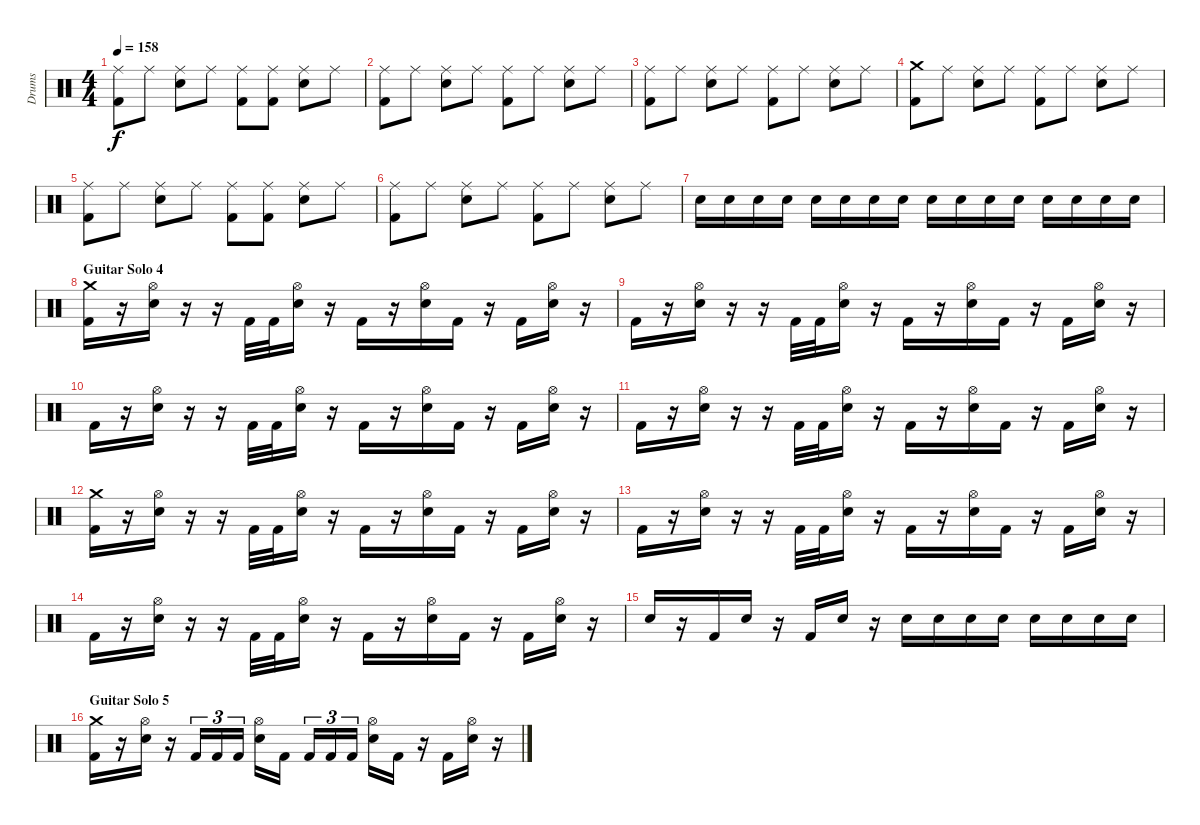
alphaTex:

\track ("Drums" "Drums") {instrument percussion}
\staff {score}
\articulation defaults
\ts (4 4)
\tempo 158
\clef neutral
\ks c
("Ride (middle)" "Kick (hit) 2").8{dy f} "Ride (middle)".8 ("Ride (middle)" "Electric Snare (hit)").8 "Ride (middle)".8 ("Ride (middle)" "Kick (hit) 2").8 ("Ride (middle)" "Kick (hit) 2").8 ("Ride (middle)" "Electric Snare (hit)").8 "Ride (middle)".8 |
("Ride (middle)" "Kick (hit) 2").8 "Ride (middle)".8 ("Ride (middle)" "Electric Snare (hit)").8 "Ride (middle)".8 ("Ride (middle)" "Kick (hit) 2").8 "Ride (middle)".8 ("Ride (middle)" "Electric Snare (hit)").8 "Ride (middle)".8 |
("Ride (middle)" "Kick (hit) 2").8 "Ride (middle)".8 ("Ride (middle)" "Electric Snare (hit)").8 "Ride (middle)".8 ("Ride (middle)" "Kick (hit) 2").8 "Ride (middle)".8 ("Ride (middle)" "Electric Snare (hit)").8 "Ride (middle)".8 |
("Crash medium (hit)" "Kick (hit) 2").8 "Ride (middle)".8 ("Ride (middle)" "Electric Snare (hit)").8 "Ride (middle)".8 ("Ride (middle)" "Kick (hit) 2").8 "Ride (middle)".8 ("Ride (middle)" "Electric Snare (hit)").8 "Ride (middle)".8 |
("Ride (middle)" "Kick (hit) 2").8 "Ride (middle)".8 ("Ride (middle)" "Electric Snare (hit)").8 "Ride (middle)".8 ("Ride (middle)" "Kick (hit) 2").8 ("Ride (middle)" "Kick (hit) 2").8 ("Ride (middle)" "Electric Snare (hit)").8 "Ride (middle)".8 |
("Ride (middle)" "Kick (hit) 2").8 "Ride (middle)".8 ("Ride (middle)" "Electric Snare (hit)").8 "Ride (middle)".8 ("Ride (middle)" "Kick (hit) 2").8 "Ride (middle)".8 ("Ride (middle)" "Electric Snare (hit)").8 "Ride (middle)".8 |
"Electric Snare (hit)".16 "Electric Snare (hit)".16 "Electric Snare (hit)".16 "Electric Snare (hit)".16 "Electric Snare (hit)".16 "Electric Snare (hit)".16 "Electric Snare (hit)".16 "Electric Snare (hit)".16 "Electric Snare (hit)".16 "Electric Snare (hit)".16 "Electric Snare (hit)".16 "Electric Snare (hit)".16 "Electric Snare (hit)".16 "Electric Snare (hit)".16 "Electric Snare (hit)".16 "Electric Snare (hit)".16 |
\section ("" "Guitar Solo 4")
("Crash medium (hit)" "Kick (hit) 2").16 r.16 ("Hi-Hat (open)" "Electric Snare (hit)").16 r.16 r.16 "Kick (hit) 2".32 "Kick (hit) 2".32 ("Hi-Hat (open)" "Electric Snare (hit)").16 r.16 "Kick (hit) 2".16 r.16 ("Hi-Hat (open)" "Electric Snare (hit)").16 "Kick (hit) 2".16 r.16 "Kick (hit) 2".16 ("Hi-Hat (open)" "Electric Snare (hit)").16 r.16 |
"Kick (hit) 2".16 r.16 ("Hi-Hat (open)" "Electric Snare (hit)").16 r.16 r.16 "Kick (hit) 2".32 "Kick (hit) 2".32 ("Hi-Hat (open)" "Electric Snare (hit)").16 r.16 "Kick (hit) 2".16 r.16 ("Hi-Hat (open)" "Electric Snare (hit)").16 "Kick (hit) 2".16 r.16 "Kick (hit) 2".16 ("Hi-Hat (open)" "Electric Snare (hit)").16 r.16 |
"Kick (hit) 2".16 r.16 ("Hi-Hat (open)" "Electric Snare (hit)").16 r.16 r.16 "Kick (hit) 2".32 "Kick (hit) 2".32 ("Hi-Hat (open)" "Electric Snare (hit)").16 r.16 "Kick (hit) 2".16 r.16 ("Hi-Hat (open)" "Electric Snare (hit)").16 "Kick (hit) 2".16 r.16 "Kick (hit) 2".16 ("Hi-Hat (open)" "Electric Snare (hit)").16 r.16 |
"Kick (hit) 2".16 r.16 ("Hi-Hat (open)" "Electric Snare (hit)").16 r.16 r.16 "Kick (hit) 2".32 "Kick (hit) 2".32 ("Hi-Hat (open)" "Electric Snare (hit)").16 r.16 "Kick (hit) 2".16 r.16 ("Hi-Hat (open)" "Electric Snare (hit)").16 "Kick (hit) 2".16 r.16 "Kick (hit) 2".16 ("Hi-Hat (open)" "Electric Snare (hit)").16 r.16 |
("Crash medium (hit)" "Kick (hit) 2").16 r.16 ("Hi-Hat (open)" "Electric Snare (hit)").16 r.16 r.16 "Kick (hit) 2".32 "Kick (hit) 2".32 ("Hi-Hat (open)" "Electric Snare (hit)").16 r.16 "Kick (hit) 2".16 r.16 ("Hi-Hat (open)" "Electric Snare (hit)").16 "Kick (hit) 2".16 r.16 "Kick (hit) 2".16 ("Hi-Hat (open)" "Electric Snare (hit)").16 r.16 |
"Kick (hit) 2".16 r.16 ("Hi-Hat (open)" "Electric Snare (hit)").16 r.16 r.16 "Kick (hit) 2".32 "Kick (hit) 2".32 ("Hi-Hat (open)" "Electric Snare (hit)").16 r.16 "Kick (hit) 2".16 r.16 ("Hi-Hat (open)" "Electric Snare (hit)").16 "Kick (hit) 2".16 r.16 "Kick (hit) 2".16 ("Hi-Hat (open)" "Electric Snare (hit)").16 r.16 |
"Kick (hit) 2".16 r.16 ("Hi-Hat (open)" "Electric Snare (hit)").16 r.16 r.16 "Kick (hit) 2".32 "Kick (hit) 2".32 ("Hi-Hat (open)" "Electric Snare (hit)").16 r.16 "Kick (hit) 2".16 r.16 ("Hi-Hat (open)" "Electric Snare (hit)").16 "Kick (hit) 2".16 r.16 "Kick (hit) 2".16 ("Hi-Hat (open)" "Electric Snare (hit)").16 r.16 |
"Electric Snare (hit)".16 r.16 "Kick (hit) 2".16 "Electric Snare (hit)".16 r.16 "Kick (hit) 2".16 "Electric Snare (hit)".16 r.16 "Electric Snare (hit)".16 "Electric Snare (hit)".16 "Electric Snare (hit)".16 "Electric Snare (hit)".16 "Electric Snare (hit)".16 "Electric Snare (hit)".16 "Electric Snare (hit)".16 "Electric Snare (hit)".16 |
\section ("" "Guitar Solo 5")
("Crash medium (hit)" "Kick (hit) 2").16 r.16 ("Hi-Hat (open)" "Electric Snare (hit)").16 r.16 "Kick (hit) 2".16{tu (3 2)} "Kick (hit) 2".16{tu (3 2)} "Kick (hit) 2".16{tu (3 2)} ("Hi-Hat (open)" "Electric Snare (hit)").16 "Kick (hit) 2".16 "Kick (hit) 2".16{tu (3 2)} "Kick (hit) 2".16{tu (3 2)} "Kick (hit) 2".16{tu (3 2)} ("Hi-Hat (open)" "Electric Snare (hit)").16 "Kick (hit) 2".16 r.16 "Kick (hit) 2".16 ("Hi-Hat (open)" "Electric Snare (hit)").16 r.16
